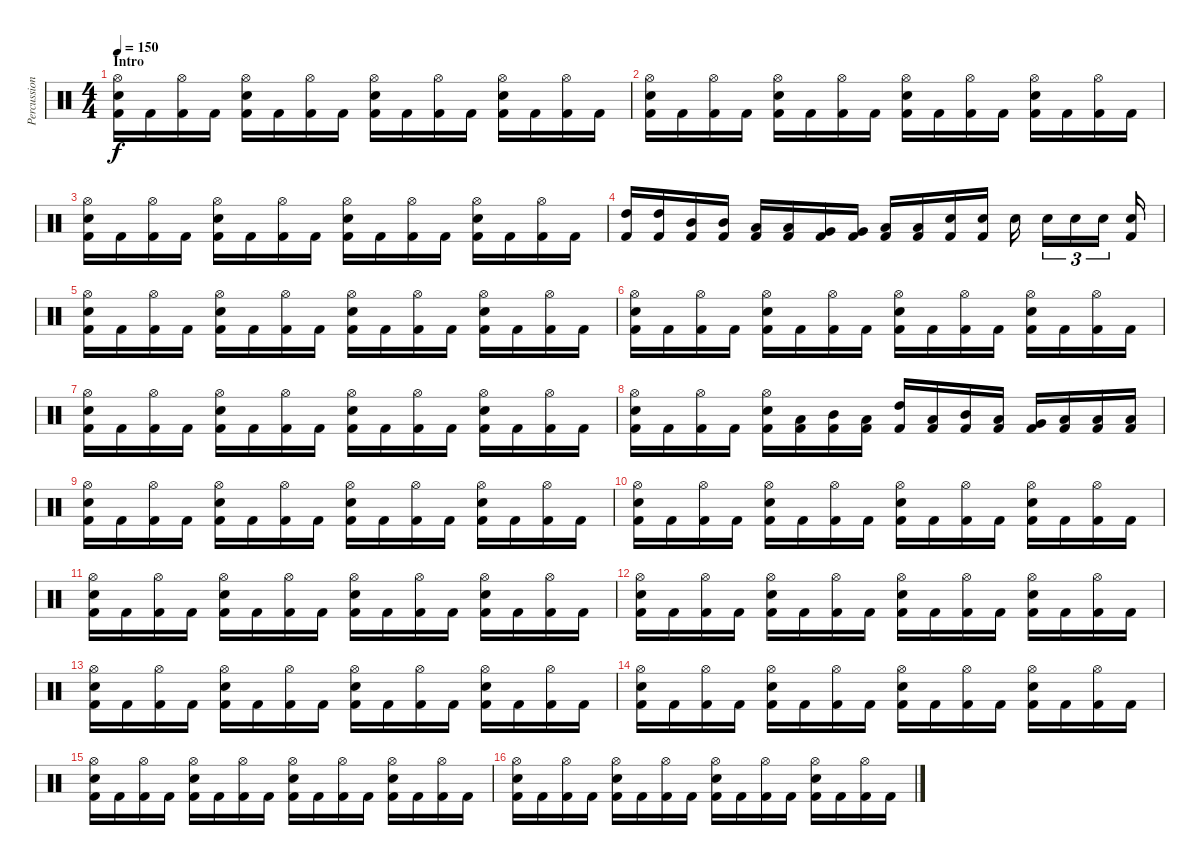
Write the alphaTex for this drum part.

\track ("Percussion" "Percussion") {instrument percussion}
\staff {score}
\articulation defaults
\ts (4 4)
\section ("" "Intro")
\tempo 150
\clef neutral
\ks c
("Hi-Hat (open)" "Snare (hit) 2" "Kick (hit) 2").16{dy f} "Kick (hit) 2".16 ("Hi-Hat (open)" "Kick (hit) 2").16 "Kick (hit) 2".16 ("Hi-Hat (open)" "Snare (hit) 2" "Kick (hit) 2").16 "Kick (hit) 2".16 ("Hi-Hat (open)" "Kick (hit) 2").16 "Kick (hit) 2".16 ("Hi-Hat (open)" "Snare (hit) 2" "Kick (hit) 2").16 "Kick (hit) 2".16 ("Hi-Hat (open)" "Kick (hit) 2").16 "Kick (hit) 2".16 ("Hi-Hat (open)" "Snare (hit) 2" "Kick (hit) 2").16 "Kick (hit) 2".16 ("Hi-Hat (open)" "Kick (hit) 2").16 "Kick (hit) 2".16 |
("Hi-Hat (open)" "Snare (hit) 2" "Kick (hit) 2").16 "Kick (hit) 2".16 ("Hi-Hat (open)" "Kick (hit) 2").16 "Kick (hit) 2".16 ("Hi-Hat (open)" "Snare (hit) 2" "Kick (hit) 2").16 "Kick (hit) 2".16 ("Hi-Hat (open)" "Kick (hit) 2").16 "Kick (hit) 2".16 ("Hi-Hat (open)" "Snare (hit) 2" "Kick (hit) 2").16 "Kick (hit) 2".16 ("Hi-Hat (open)" "Kick (hit) 2").16 "Kick (hit) 2".16 ("Hi-Hat (open)" "Snare (hit) 2" "Kick (hit) 2").16 "Kick (hit) 2".16 ("Hi-Hat (open)" "Kick (hit) 2").16 "Kick (hit) 2".16 |
("Hi-Hat (open)" "Snare (hit) 2" "Kick (hit) 2").16 "Kick (hit) 2".16 ("Hi-Hat (open)" "Kick (hit) 2").16 "Kick (hit) 2".16 ("Hi-Hat (open)" "Snare (hit) 2" "Kick (hit) 2").16 "Kick (hit) 2".16 ("Hi-Hat (open)" "Kick (hit) 2").16 "Kick (hit) 2".16 ("Hi-Hat (open)" "Snare (hit) 2" "Kick (hit) 2").16 "Kick (hit) 2".16 ("Hi-Hat (open)" "Kick (hit) 2").16 "Kick (hit) 2".16 ("Hi-Hat (open)" "Snare (hit) 2" "Kick (hit) 2").16 "Kick (hit) 2".16 ("Hi-Hat (open)" "Kick (hit) 2").16 "Kick (hit) 2".16 |
("High Tom (hit)" "Kick (hit) 2").16 ("High Tom (hit)" "Kick (hit) 2").16 ("Mid Tom (hit)" "Kick (hit) 2").16 ("Mid Tom (hit)" "Kick (hit) 2").16 ("Low Tom (hit)" "Kick (hit) 2").16 ("Low Tom (hit)" "Kick (hit) 2").16 ("Very Low Tom (hit)" "Kick (hit) 2").16 ("Very Low Tom (hit)" "Kick (hit) 2").16 ("Low Floor Tom (hit)" "Kick (hit) 2").16 ("Low Floor Tom (hit)" "Kick (hit) 2").16 ("Snare (hit) 2" "Kick (hit) 2").16 ("Snare (hit) 2" "Kick (hit) 2").16 "Snare (hit) 2".16 "Snare (hit) 2".16{tu (3 2)} "Snare (hit) 2".16{tu (3 2)} "Snare (hit) 2".16{tu (3 2)} ("Snare (hit) 2" "Kick (hit) 2").16 |
("Hi-Hat (open)" "Snare (hit) 2" "Kick (hit) 2").16 "Kick (hit) 2".16 ("Hi-Hat (open)" "Kick (hit) 2").16 "Kick (hit) 2".16 ("Hi-Hat (open)" "Snare (hit) 2" "Kick (hit) 2").16 "Kick (hit) 2".16 ("Hi-Hat (open)" "Kick (hit) 2").16 "Kick (hit) 2".16 ("Hi-Hat (open)" "Snare (hit) 2" "Kick (hit) 2").16 "Kick (hit) 2".16 ("Hi-Hat (open)" "Kick (hit) 2").16 "Kick (hit) 2".16 ("Hi-Hat (open)" "Snare (hit) 2" "Kick (hit) 2").16 "Kick (hit) 2".16 ("Hi-Hat (open)" "Kick (hit) 2").16 "Kick (hit) 2".16 |
("Hi-Hat (open)" "Snare (hit) 2" "Kick (hit) 2").16 "Kick (hit) 2".16 ("Hi-Hat (open)" "Kick (hit) 2").16 "Kick (hit) 2".16 ("Hi-Hat (open)" "Snare (hit) 2" "Kick (hit) 2").16 "Kick (hit) 2".16 ("Hi-Hat (open)" "Kick (hit) 2").16 "Kick (hit) 2".16 ("Hi-Hat (open)" "Snare (hit) 2" "Kick (hit) 2").16 "Kick (hit) 2".16 ("Hi-Hat (open)" "Kick (hit) 2").16 "Kick (hit) 2".16 ("Hi-Hat (open)" "Snare (hit) 2" "Kick (hit) 2").16 "Kick (hit) 2".16 ("Hi-Hat (open)" "Kick (hit) 2").16 "Kick (hit) 2".16 |
("Hi-Hat (open)" "Snare (hit) 2" "Kick (hit) 2").16 "Kick (hit) 2".16 ("Hi-Hat (open)" "Kick (hit) 2").16 "Kick (hit) 2".16 ("Hi-Hat (open)" "Snare (hit) 2" "Kick (hit) 2").16 "Kick (hit) 2".16 ("Hi-Hat (open)" "Kick (hit) 2").16 "Kick (hit) 2".16 ("Hi-Hat (open)" "Snare (hit) 2" "Kick (hit) 2").16 "Kick (hit) 2".16 ("Hi-Hat (open)" "Kick (hit) 2").16 "Kick (hit) 2".16 ("Hi-Hat (open)" "Snare (hit) 2" "Kick (hit) 2").16 "Kick (hit) 2".16 ("Hi-Hat (open)" "Kick (hit) 2").16 "Kick (hit) 2".16 |
("Hi-Hat (open)" "Snare (hit) 2" "Kick (hit) 2").16 "Kick (hit) 2".16 ("Hi-Hat (open)" "Kick (hit) 2").16 "Kick (hit) 2".16 ("Hi-Hat (open)" "Snare (hit) 2" "Kick (hit) 2").16 ("Low Tom (hit)" "Kick (hit) 2").16 ("Mid Tom (hit)" "Kick (hit) 2").16 ("Low Tom (hit)" "Kick (hit) 2").16 ("High Tom (hit)" "Kick (hit) 2").16 ("Low Tom (hit)" "Kick (hit) 2").16 ("Mid Tom (hit)" "Kick (hit) 2").16 ("Low Tom (hit)" "Kick (hit) 2").16 ("Very Low Tom (hit)" "Kick (hit) 2").16 ("Low Floor Tom (hit)" "Kick (hit) 2").16 ("Low Tom (hit)" "Kick (hit) 2").16 ("Low Tom (hit)" "Kick (hit) 2").16 |
("Hi-Hat (open)" "Snare (hit) 2" "Kick (hit) 2").16 "Kick (hit) 2".16 ("Hi-Hat (open)" "Kick (hit) 2").16 "Kick (hit) 2".16 ("Hi-Hat (open)" "Snare (hit) 2" "Kick (hit) 2").16 "Kick (hit) 2".16 ("Hi-Hat (open)" "Kick (hit) 2").16 "Kick (hit) 2".16 ("Hi-Hat (open)" "Snare (hit) 2" "Kick (hit) 2").16 "Kick (hit) 2".16 ("Hi-Hat (open)" "Kick (hit) 2").16 "Kick (hit) 2".16 ("Hi-Hat (open)" "Snare (hit) 2" "Kick (hit) 2").16 "Kick (hit) 2".16 ("Hi-Hat (open)" "Kick (hit) 2").16 "Kick (hit) 2".16 |
("Hi-Hat (open)" "Snare (hit) 2" "Kick (hit) 2").16 "Kick (hit) 2".16 ("Hi-Hat (open)" "Kick (hit) 2").16 "Kick (hit) 2".16 ("Hi-Hat (open)" "Snare (hit) 2" "Kick (hit) 2").16 "Kick (hit) 2".16 ("Hi-Hat (open)" "Kick (hit) 2").16 "Kick (hit) 2".16 ("Hi-Hat (open)" "Snare (hit) 2" "Kick (hit) 2").16 "Kick (hit) 2".16 ("Hi-Hat (open)" "Kick (hit) 2").16 "Kick (hit) 2".16 ("Hi-Hat (open)" "Snare (hit) 2" "Kick (hit) 2").16 "Kick (hit) 2".16 ("Hi-Hat (open)" "Kick (hit) 2").16 "Kick (hit) 2".16 |
("Hi-Hat (open)" "Snare (hit) 2" "Kick (hit) 2").16 "Kick (hit) 2".16 ("Hi-Hat (open)" "Kick (hit) 2").16 "Kick (hit) 2".16 ("Hi-Hat (open)" "Snare (hit) 2" "Kick (hit) 2").16 "Kick (hit) 2".16 ("Hi-Hat (open)" "Kick (hit) 2").16 "Kick (hit) 2".16 ("Hi-Hat (open)" "Snare (hit) 2" "Kick (hit) 2").16 "Kick (hit) 2".16 ("Hi-Hat (open)" "Kick (hit) 2").16 "Kick (hit) 2".16 ("Hi-Hat (open)" "Snare (hit) 2" "Kick (hit) 2").16 "Kick (hit) 2".16 ("Hi-Hat (open)" "Kick (hit) 2").16 "Kick (hit) 2".16 |
("Hi-Hat (open)" "Snare (hit) 2" "Kick (hit) 2").16 "Kick (hit) 2".16 ("Hi-Hat (open)" "Kick (hit) 2").16 "Kick (hit) 2".16 ("Hi-Hat (open)" "Snare (hit) 2" "Kick (hit) 2").16 "Kick (hit) 2".16 ("Hi-Hat (open)" "Kick (hit) 2").16 "Kick (hit) 2".16 ("Hi-Hat (open)" "Snare (hit) 2" "Kick (hit) 2").16 "Kick (hit) 2".16 ("Hi-Hat (open)" "Kick (hit) 2").16 "Kick (hit) 2".16 ("Hi-Hat (open)" "Snare (hit) 2" "Kick (hit) 2").16 "Kick (hit) 2".16 ("Hi-Hat (open)" "Kick (hit) 2").16 "Kick (hit) 2".16 |
("Hi-Hat (open)" "Snare (hit) 2" "Kick (hit) 2").16 "Kick (hit) 2".16 ("Hi-Hat (open)" "Kick (hit) 2").16 "Kick (hit) 2".16 ("Hi-Hat (open)" "Snare (hit) 2" "Kick (hit) 2").16 "Kick (hit) 2".16 ("Hi-Hat (open)" "Kick (hit) 2").16 "Kick (hit) 2".16 ("Hi-Hat (open)" "Snare (hit) 2" "Kick (hit) 2").16 "Kick (hit) 2".16 ("Hi-Hat (open)" "Kick (hit) 2").16 "Kick (hit) 2".16 ("Hi-Hat (open)" "Snare (hit) 2" "Kick (hit) 2").16 "Kick (hit) 2".16 ("Hi-Hat (open)" "Kick (hit) 2").16 "Kick (hit) 2".16 |
("Hi-Hat (open)" "Snare (hit) 2" "Kick (hit) 2").16 "Kick (hit) 2".16 ("Hi-Hat (open)" "Kick (hit) 2").16 "Kick (hit) 2".16 ("Hi-Hat (open)" "Snare (hit) 2" "Kick (hit) 2").16 "Kick (hit) 2".16 ("Hi-Hat (open)" "Kick (hit) 2").16 "Kick (hit) 2".16 ("Hi-Hat (open)" "Snare (hit) 2" "Kick (hit) 2").16 "Kick (hit) 2".16 ("Hi-Hat (open)" "Kick (hit) 2").16 "Kick (hit) 2".16 ("Hi-Hat (open)" "Snare (hit) 2" "Kick (hit) 2").16 "Kick (hit) 2".16 ("Hi-Hat (open)" "Kick (hit) 2").16 "Kick (hit) 2".16 |
("Hi-Hat (open)" "Snare (hit) 2" "Kick (hit) 2").16 "Kick (hit) 2".16 ("Hi-Hat (open)" "Kick (hit) 2").16 "Kick (hit) 2".16 ("Hi-Hat (open)" "Snare (hit) 2" "Kick (hit) 2").16 "Kick (hit) 2".16 ("Hi-Hat (open)" "Kick (hit) 2").16 "Kick (hit) 2".16 ("Hi-Hat (open)" "Snare (hit) 2" "Kick (hit) 2").16 "Kick (hit) 2".16 ("Hi-Hat (open)" "Kick (hit) 2").16 "Kick (hit) 2".16 ("Hi-Hat (open)" "Snare (hit) 2" "Kick (hit) 2").16 "Kick (hit) 2".16 ("Hi-Hat (open)" "Kick (hit) 2").16 "Kick (hit) 2".16 |
("Hi-Hat (open)" "Snare (hit) 2" "Kick (hit) 2").16 "Kick (hit) 2".16 ("Hi-Hat (open)" "Kick (hit) 2").16 "Kick (hit) 2".16 ("Hi-Hat (open)" "Snare (hit) 2" "Kick (hit) 2").16 "Kick (hit) 2".16 ("Hi-Hat (open)" "Kick (hit) 2").16 "Kick (hit) 2".16 ("Hi-Hat (open)" "Snare (hit) 2" "Kick (hit) 2").16 "Kick (hit) 2".16 ("Hi-Hat (open)" "Kick (hit) 2").16 "Kick (hit) 2".16 ("Hi-Hat (open)" "Snare (hit) 2" "Kick (hit) 2").16 "Kick (hit) 2".16 ("Hi-Hat (open)" "Kick (hit) 2").16 "Kick (hit) 2".16
